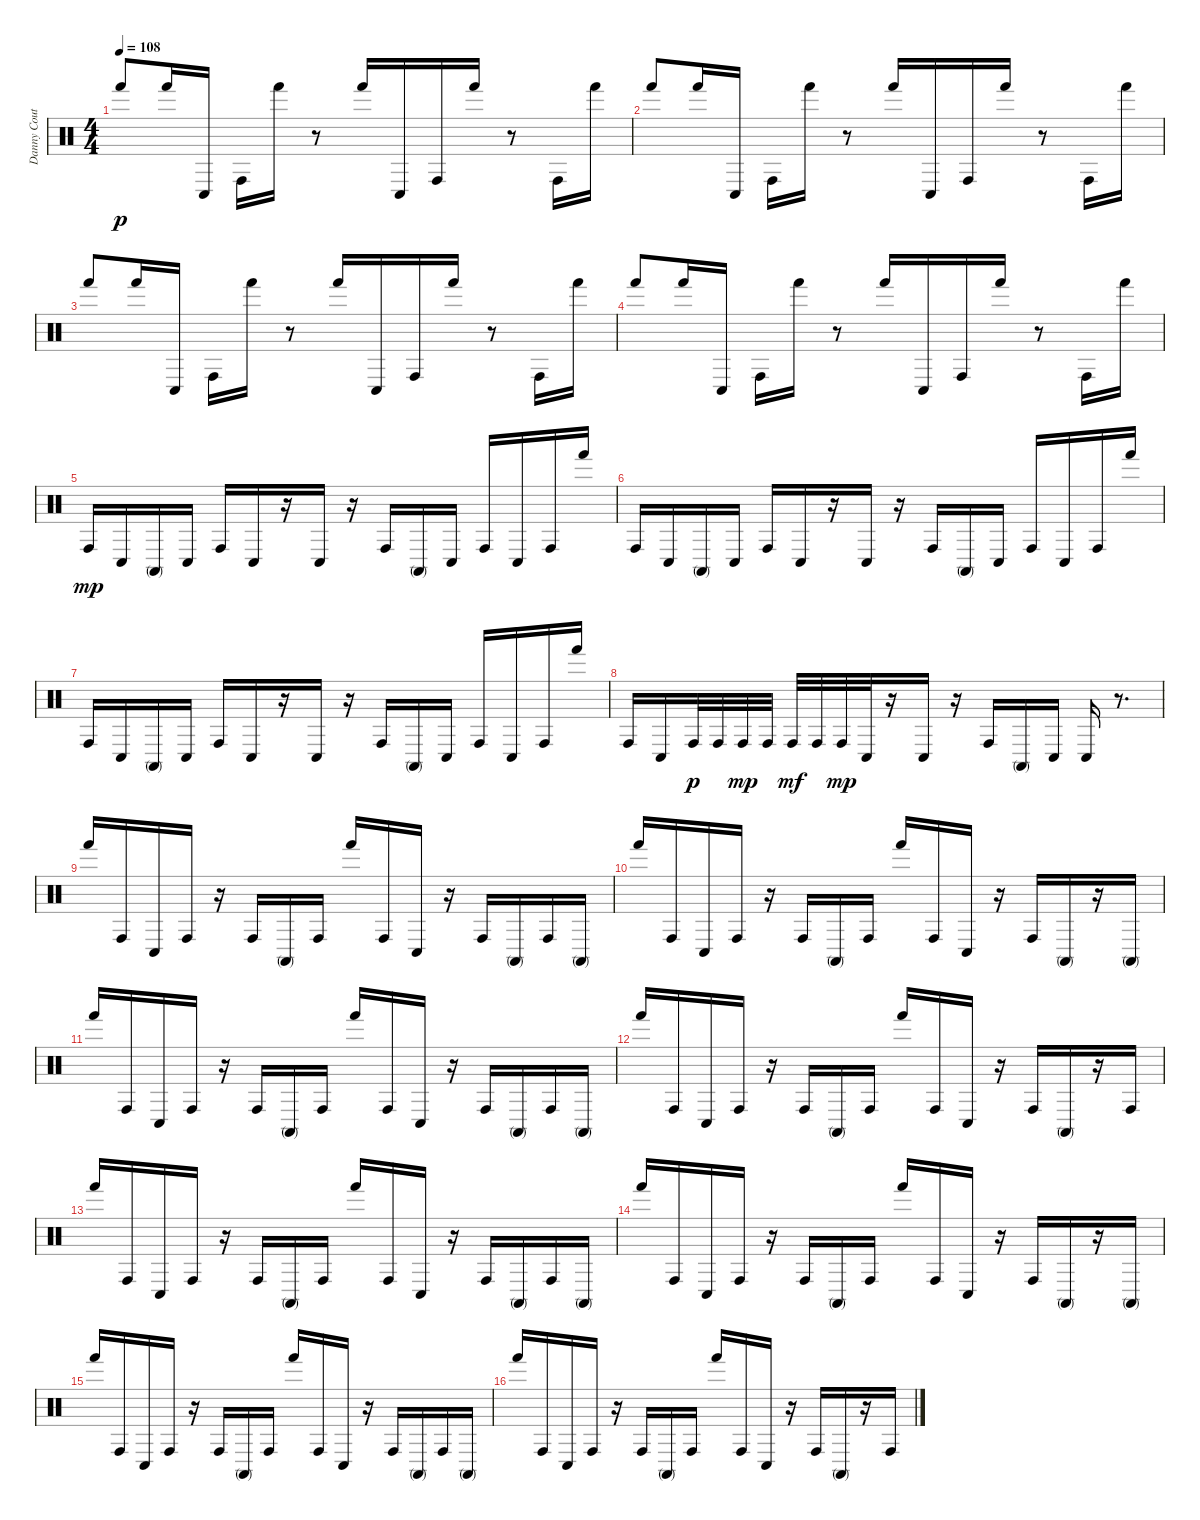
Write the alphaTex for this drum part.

\track ("Danny Couto [Percussion]" "Danny Cout") {instrument percussion}
\staff {score}
\articulation defaults
\ts (4 4)
\tempo 108
\clef neutral
\ks c "Hand (hit)".8{dy p} "Hand (hit)".16 "Conga low (hit)".16 "Conga high (hit)".16 "Hand (hit)".16
r.8 "Hand (hit)".16 "Conga low (hit)".16 "Conga high (hit)".16 "Hand (hit)".16 r.8 "Conga high (hit)".16 "Hand (hit)".16 |
"Hand (hit)".8 "Hand (hit)".16 "Conga low (hit)".16 "Conga high (hit)".16 "Hand (hit)".16 r.8 "Hand (hit)".16 "Conga low (hit)".16 "Conga high (hit)".16 "Hand (hit)".16 r.8 "Conga high (hit)".16 "Hand (hit)".16 |
"Hand (hit)".8 "Hand (hit)".16 "Conga low (hit)".16 "Conga high (hit)".16 "Hand (hit)".16 r.8 "Hand (hit)".16 "Conga low (hit)".16 "Conga high (hit)".16 "Hand (hit)".16 r.8 "Conga high (hit)".16 "Hand (hit)".16 |
"Hand (hit)".8 "Hand (hit)".16 "Conga low (hit)".16 "Conga high (hit)".16 "Hand (hit)".16 r.8 "Hand (hit)".16 "Conga low (hit)".16 "Conga high (hit)".16 "Hand (hit)".16 r.8 "Conga high (hit)".16 "Hand (hit)".16 |
"Conga high (hit)".16{dy mp} "Conga low (hit)".16 "Conga high (mute)".16 "Conga low (hit)".16 "Conga high (hit)".16 "Conga low (hit)".16 r.16 "Conga low (hit)".16 r.16 "Conga high (hit)".16 "Conga high (mute)".16 "Conga low (hit)".16 "Conga high (hit)".16 "Conga low (hit)".16 "Conga high (hit)".16 "Hand (hit)".16 |
"Conga high (hit)".16 "Conga low (hit)".16 "Conga high (mute)".16 "Conga low (hit)".16 "Conga high (hit)".16 "Conga low (hit)".16 r.16 "Conga low (hit)".16 r.16 "Conga high (hit)".16 "Conga high (mute)".16 "Conga low (hit)".16 "Conga high (hit)".16 "Conga low (hit)".16 "Conga high (hit)".16 "Hand (hit)".16 |
"Conga high (hit)".16 "Conga low (hit)".16 "Conga high (mute)".16 "Conga low (hit)".16 "Conga high (hit)".16 "Conga low (hit)".16 r.16 "Conga low (hit)".16 r.16 "Conga high (hit)".16 "Conga high (mute)".16 "Conga low (hit)".16 "Conga high (hit)".16 "Conga low (hit)".16 "Conga high (hit)".16 "Hand (hit)".16 |
"Conga high (hit)".16 "Conga low (hit)".16 "Conga high (hit)".32{dy p} "Conga high (hit)".32 "Conga high (hit)".32{dy mp} "Conga high (hit)".32 "Conga high (hit)".32{dy mf} "Conga high (hit)".32 "Conga high (hit)".32{dy mp} "Conga low (hit)".32 r.16 "Conga low (hit)".16 r.16 "Conga high (hit)".16 "Conga high (mute)".16 "Conga low (hit)".16 "Conga low (hit)".16 r.8{d} |
"Hand (hit)".16 "Conga high (hit)".16 "Conga low (hit)".16 "Conga high (hit)".16 r.16 "Conga high (hit)".16 "Conga high (mute)".16 "Conga high (hit)".16 "Hand (hit)".16 "Conga high (hit)".16 "Conga low (hit)".16 r.16 "Conga high (hit)".16 "Conga high (mute)".16 "Conga high (hit)".16 "Conga high (mute)".16 |
"Hand (hit)".16 "Conga high (hit)".16 "Conga low (hit)".16 "Conga high (hit)".16 r.16 "Conga high (hit)".16 "Conga high (mute)".16 "Conga high (hit)".16 "Hand (hit)".16 "Conga high (hit)".16 "Conga low (hit)".16 r.16 "Conga high (hit)".16 "Conga high (mute)".16 r.16 "Conga high (mute)".16 |
"Hand (hit)".16 "Conga high (hit)".16 "Conga low (hit)".16 "Conga high (hit)".16 r.16 "Conga high (hit)".16 "Conga high (mute)".16 "Conga high (hit)".16 "Hand (hit)".16 "Conga high (hit)".16 "Conga low (hit)".16 r.16 "Conga high (hit)".16 "Conga high (mute)".16 "Conga high (hit)".16 "Conga high (mute)".16 |
"Hand (hit)".16 "Conga high (hit)".16 "Conga low (hit)".16 "Conga high (hit)".16 r.16 "Conga high (hit)".16 "Conga high (mute)".16 "Conga high (hit)".16 "Hand (hit)".16 "Conga high (hit)".16 "Conga low (hit)".16 r.16 "Conga high (hit)".16 "Conga high (mute)".16 r.16 "Conga high (hit)".16 |
"Hand (hit)".16 "Conga high (hit)".16 "Conga low (hit)".16 "Conga high (hit)".16 r.16 "Conga high (hit)".16 "Conga high (mute)".16 "Conga high (hit)".16 "Hand (hit)".16 "Conga high (hit)".16 "Conga low (hit)".16 r.16 "Conga high (hit)".16 "Conga high (mute)".16 "Conga high (hit)".16 "Conga high (mute)".16 |
"Hand (hit)".16 "Conga high (hit)".16 "Conga low (hit)".16 "Conga high (hit)".16 r.16 "Conga high (hit)".16 "Conga high (mute)".16 "Conga high (hit)".16 "Hand (hit)".16 "Conga high (hit)".16 "Conga low (hit)".16 r.16 "Conga high (hit)".16 "Conga high (mute)".16 r.16 "Conga high (mute)".16 |
"Hand (hit)".16 "Conga high (hit)".16 "Conga low (hit)".16 "Conga high (hit)".16 r.16 "Conga high (hit)".16 "Conga high (mute)".16 "Conga high (hit)".16 "Hand (hit)".16 "Conga high (hit)".16 "Conga low (hit)".16 r.16 "Conga high (hit)".16 "Conga high (mute)".16 "Conga high (hit)".16 "Conga high (mute)".16 |
"Hand (hit)".16 "Conga high (hit)".16 "Conga low (hit)".16 "Conga high (hit)".16 r.16 "Conga high (hit)".16 "Conga high (mute)".16 "Conga high (hit)".16 "Hand (hit)".16 "Conga high (hit)".16 "Conga low (hit)".16 r.16 "Conga high (hit)".16 "Conga high (mute)".16 r.16 "Conga high (hit)".16
